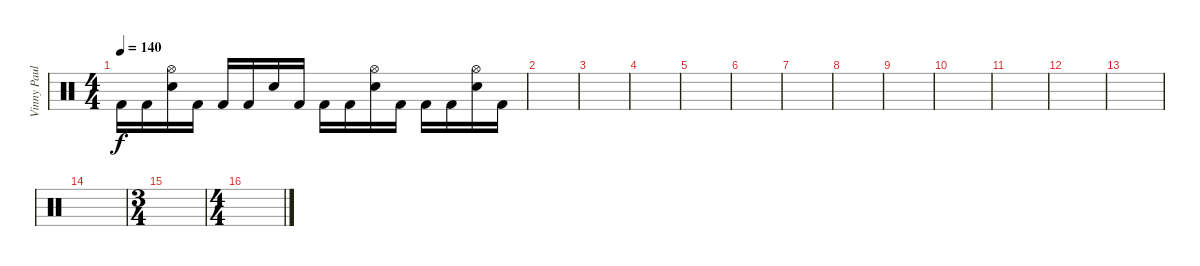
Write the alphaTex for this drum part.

\track ("Vinny Paul" "Vinny Paul") {instrument percussion}
\staff {score}
\articulation defaults
\ts (4 4)
\tempo 140
\clef neutral
\ks c "Kick (hit) 2".16{dy f} "Kick (hit) 2".16
("Hi-Hat (open)" "Snare (hit) 2").16 "Kick (hit) 2".16 "Kick (hit) 2".16 "Kick (hit) 2".16 "Snare (hit) 2".16 "Kick (hit) 2".16 "Kick (hit) 2".16 "Kick (hit) 2".16 ("Hi-Hat (open)" "Snare (hit) 2").16 "Kick (hit) 2".16 "Kick (hit) 2".16 "Kick (hit) 2".16 ("Hi-Hat (open)" "Snare (hit) 2").16 "Kick (hit) 2".16 |
|
|
|
|
|
|
|
|
|
|
|
|
|
\ts (3 4)
|
\ts (4 4)
